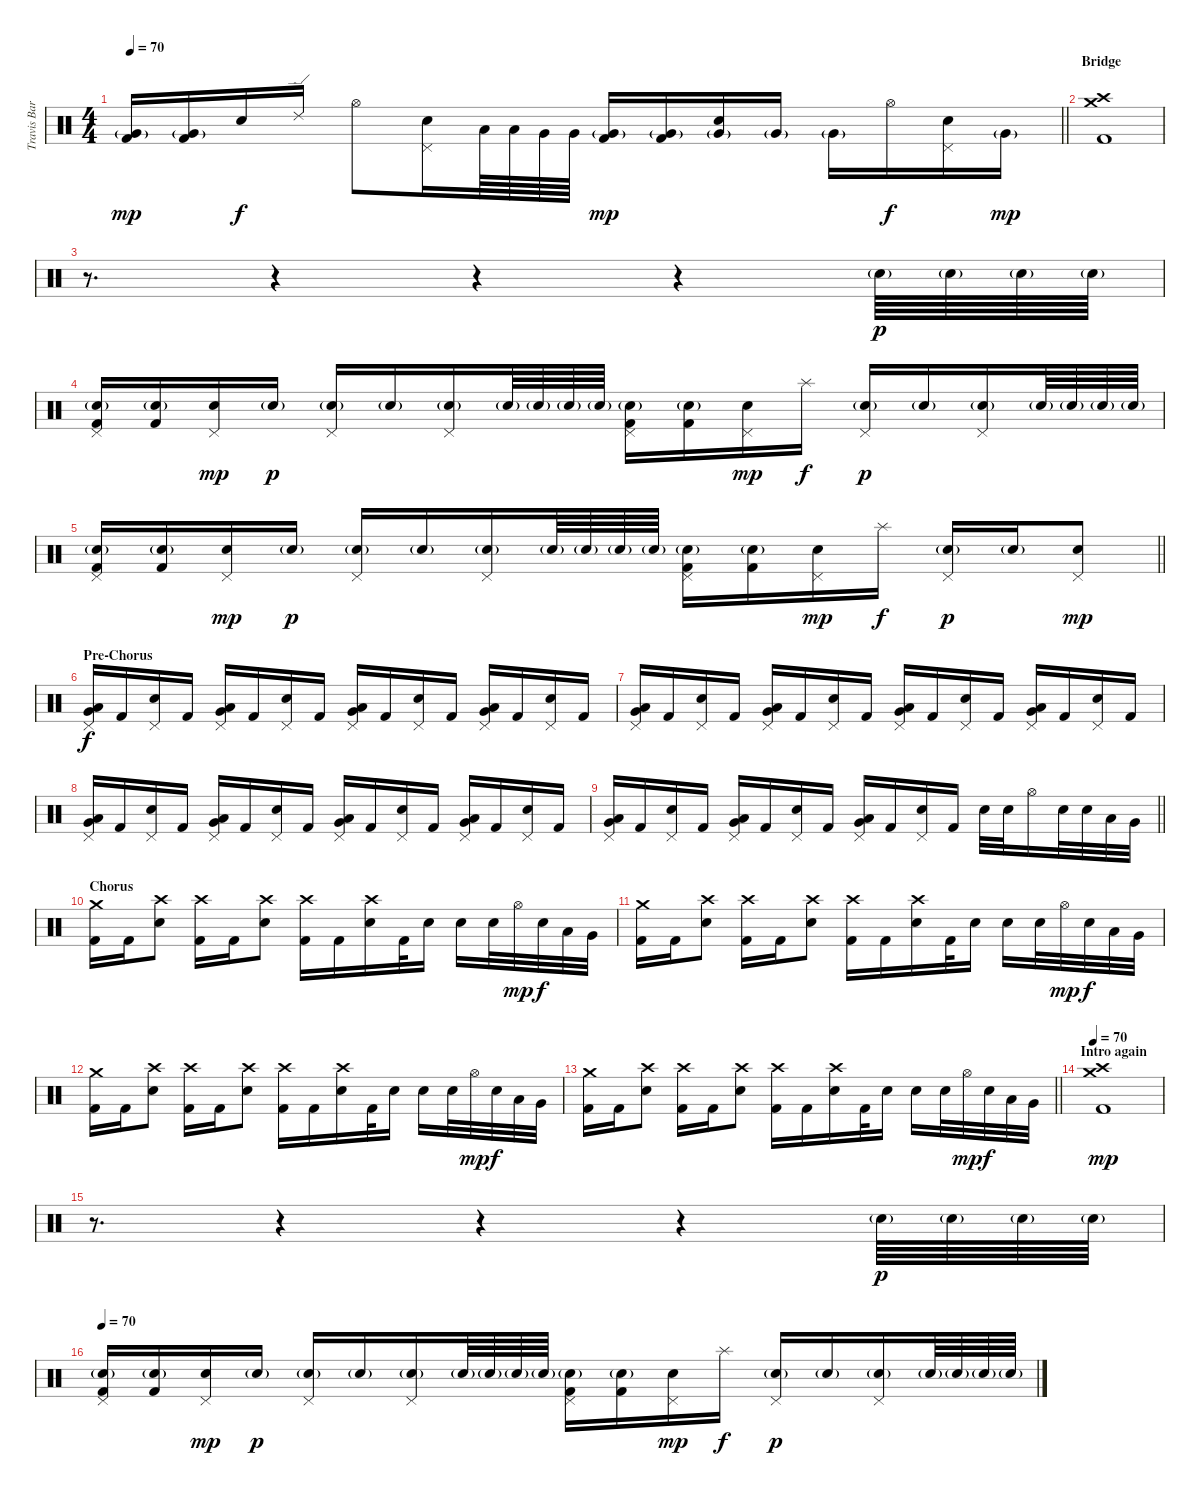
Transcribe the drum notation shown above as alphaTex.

\track ("Travis Barker" "Travis Bar") {instrument percussion}
\staff {score}
\articulation defaults
\ts (4 4)
\tempo 70
\clef neutral
\barLineRight lightlight
\ks c
("Very Low Tom (hit)"{g} "Kick (hit) 2").16{dy mp} ("Very Low Tom (hit)"{g} "Kick (hit) 2").16 "Electric Snare (hit)".16{dy f} "Ride (edge) 2".16 "Hi-Hat (open)".8 ("Pedal Hi-Hat (hit)" "Electric Snare (hit)").16 "Low Tom (hit)".64 "Low Tom (hit)".64 "Very Low Tom (hit)".64 "Very Low Tom (hit)".64 ("Very Low Tom (hit)"{g} "Kick (hit) 2").16{dy mp} ("Very Low Tom (hit)"{g} "Kick (hit) 2").16 ("Electric Snare (hit)" "Very Low Tom (hit)"{g}).16 "Very Low Tom (hit)"{g}.16 "Very Low Tom (hit)"{g}.16 "Hi-Hat (open)".16{dy f} ("Pedal Hi-Hat (hit)" "Electric Snare (hit)").16 "Very Low Tom (hit)"{g}.16{dy mp} |
\section ("" "Bridge")
("Crash medium (hit)" "Crash high (hit)" "Kick (hit) 2").1 |
r.8{d} r.4 r.4 r.4 "Electric Snare (hit)"{g}.64{dy p} "Electric Snare (hit)"{g}.64 "Electric Snare (hit)"{g}.64 "Electric Snare (hit)"{g}.64 |
("Pedal Hi-Hat (hit)" "Electric Snare (hit)"{g} "Kick (hit) 2").16 ("Electric Snare (hit)"{g} "Kick (hit) 2").16 ("Pedal Hi-Hat (hit)" "Electric Snare (hit)").16{dy mp} "Electric Snare (hit)"{g}.16{dy p} ("Pedal Hi-Hat (hit)" "Electric Snare (hit)"{g}).16 "Electric Snare (hit)"{g}.16 ("Pedal Hi-Hat (hit)" "Electric Snare (hit)"{g}).16 "Electric Snare (hit)"{g}.64 "Electric Snare (hit)"{g}.64 "Electric Snare (hit)"{g}.64 "Electric Snare (hit)"{g}.64 ("Pedal Hi-Hat (hit)" "Electric Snare (hit)"{g} "Kick (hit) 2").16 ("Electric Snare (hit)"{g} "Kick (hit) 2").16 ("Pedal Hi-Hat (hit)" "Electric Snare (hit)").16{dy mp} "Splash (hit)".16{dy f} ("Pedal Hi-Hat (hit)" "Electric Snare (hit)"{g}).16{dy p} "Electric Snare (hit)"{g}.16 ("Pedal Hi-Hat (hit)" "Electric Snare (hit)"{g}).16 "Electric Snare (hit)"{g}.64 "Electric Snare (hit)"{g}.64 "Electric Snare (hit)"{g}.64 "Electric Snare (hit)"{g}.64 |
\barLineRight lightlight
("Pedal Hi-Hat (hit)" "Electric Snare (hit)"{g} "Kick (hit) 2").16 ("Electric Snare (hit)"{g} "Kick (hit) 2").16 ("Pedal Hi-Hat (hit)" "Electric Snare (hit)").16{dy mp} "Electric Snare (hit)"{g}.16{dy p} ("Pedal Hi-Hat (hit)" "Electric Snare (hit)"{g}).16 "Electric Snare (hit)"{g}.16 ("Pedal Hi-Hat (hit)" "Electric Snare (hit)"{g}).16 "Electric Snare (hit)"{g}.64 "Electric Snare (hit)"{g}.64 "Electric Snare (hit)"{g}.64 "Electric Snare (hit)"{g}.64 ("Pedal Hi-Hat (hit)" "Electric Snare (hit)"{g} "Kick (hit) 2").16 ("Electric Snare (hit)"{g} "Kick (hit) 2").16 ("Pedal Hi-Hat (hit)" "Electric Snare (hit)").16{dy mp} "Splash (hit)".16{dy f} ("Pedal Hi-Hat (hit)" "Electric Snare (hit)"{g}).16{dy p} "Electric Snare (hit)"{g}.16 ("Pedal Hi-Hat (hit)" "Electric Snare (hit)").8{dy mp} |
\section ("" "Pre-Chorus")
("Pedal Hi-Hat (hit)" "Low Tom (hit)" "Very Low Tom (hit)").16{dy f} "Kick (hit) 2".16 ("Pedal Hi-Hat (hit)" "Electric Snare (hit)").16 "Kick (hit) 2".16 ("Pedal Hi-Hat (hit)" "Low Tom (hit)" "Very Low Tom (hit)").16 "Kick (hit) 2".16 ("Pedal Hi-Hat (hit)" "Electric Snare (hit)").16 "Kick (hit) 2".16 ("Pedal Hi-Hat (hit)" "Low Tom (hit)" "Very Low Tom (hit)").16 "Kick (hit) 2".16 ("Pedal Hi-Hat (hit)" "Electric Snare (hit)").16 "Kick (hit) 2".16 ("Pedal Hi-Hat (hit)" "Low Tom (hit)" "Very Low Tom (hit)").16 "Kick (hit) 2".16 ("Pedal Hi-Hat (hit)" "Electric Snare (hit)").16 "Kick (hit) 2".16 |
("Pedal Hi-Hat (hit)" "Low Tom (hit)" "Very Low Tom (hit)").16 "Kick (hit) 2".16 ("Pedal Hi-Hat (hit)" "Electric Snare (hit)").16 "Kick (hit) 2".16 ("Pedal Hi-Hat (hit)" "Low Tom (hit)" "Very Low Tom (hit)").16 "Kick (hit) 2".16 ("Pedal Hi-Hat (hit)" "Electric Snare (hit)").16 "Kick (hit) 2".16 ("Pedal Hi-Hat (hit)" "Low Tom (hit)" "Very Low Tom (hit)").16 "Kick (hit) 2".16 ("Pedal Hi-Hat (hit)" "Electric Snare (hit)").16 "Kick (hit) 2".16 ("Pedal Hi-Hat (hit)" "Low Tom (hit)" "Very Low Tom (hit)").16 "Kick (hit) 2".16 ("Pedal Hi-Hat (hit)" "Electric Snare (hit)").16 "Kick (hit) 2".16 |
("Pedal Hi-Hat (hit)" "Low Tom (hit)" "Very Low Tom (hit)").16 "Kick (hit) 2".16 ("Pedal Hi-Hat (hit)" "Electric Snare (hit)").16 "Kick (hit) 2".16 ("Pedal Hi-Hat (hit)" "Low Tom (hit)" "Very Low Tom (hit)").16 "Kick (hit) 2".16 ("Pedal Hi-Hat (hit)" "Electric Snare (hit)").16 "Kick (hit) 2".16 ("Pedal Hi-Hat (hit)" "Low Tom (hit)" "Very Low Tom (hit)").16 "Kick (hit) 2".16 ("Pedal Hi-Hat (hit)" "Electric Snare (hit)").16 "Kick (hit) 2".16 ("Pedal Hi-Hat (hit)" "Low Tom (hit)" "Very Low Tom (hit)").16 "Kick (hit) 2".16 ("Pedal Hi-Hat (hit)" "Electric Snare (hit)").16 "Kick (hit) 2".16 |
\barLineRight lightlight
("Pedal Hi-Hat (hit)" "Low Tom (hit)" "Very Low Tom (hit)").16 "Kick (hit) 2".16 ("Pedal Hi-Hat (hit)" "Electric Snare (hit)").16 "Kick (hit) 2".16 ("Pedal Hi-Hat (hit)" "Low Tom (hit)" "Very Low Tom (hit)").16 "Kick (hit) 2".16 ("Pedal Hi-Hat (hit)" "Electric Snare (hit)").16 "Kick (hit) 2".16 ("Pedal Hi-Hat (hit)" "Low Tom (hit)" "Very Low Tom (hit)").16 "Kick (hit) 2".16 ("Pedal Hi-Hat (hit)" "Electric Snare (hit)").16 "Kick (hit) 2".16 "Electric Snare (hit)".32 "Electric Snare (hit)".32 "Hi-Hat (open)".16 "Electric Snare (hit)".32 "Electric Snare (hit)".32 "Low Tom (hit)".32 "Very Low Tom (hit)".32 |
\section ("" "Chorus")
("Crash medium (hit)" "Kick (hit) 2").16 "Kick (hit) 2".16 ("Crash high (hit)" "Electric Snare (hit)").8 ("Crash high (hit)" "Kick (hit) 2").16 "Kick (hit) 2".16 ("Crash high (hit)" "Electric Snare (hit)").8 ("Crash high (hit)" "Kick (hit) 2").16 "Kick (hit) 2".16 ("Crash high (hit)" "Electric Snare (hit)").16 "Kick (hit) 2".32 "Electric Snare (hit)".16 "Electric Snare (hit)".16 "Electric Snare (hit)".32 "Hi-Hat (open)".32{dy mp} "Electric Snare (hit)".32{dy f} "Low Tom (hit)".32 "Very Low Tom (hit)".32 |
("Crash medium (hit)" "Kick (hit) 2").16 "Kick (hit) 2".16 ("Crash high (hit)" "Electric Snare (hit)").8 ("Crash high (hit)" "Kick (hit) 2").16 "Kick (hit) 2".16 ("Crash high (hit)" "Electric Snare (hit)").8 ("Crash high (hit)" "Kick (hit) 2").16 "Kick (hit) 2".16 ("Crash high (hit)" "Electric Snare (hit)").16 "Kick (hit) 2".32 "Electric Snare (hit)".16 "Electric Snare (hit)".16 "Electric Snare (hit)".32 "Hi-Hat (open)".32{dy mp} "Electric Snare (hit)".32{dy f} "Low Tom (hit)".32 "Very Low Tom (hit)".32 |
("Crash medium (hit)" "Kick (hit) 2").16 "Kick (hit) 2".16 ("Crash high (hit)" "Electric Snare (hit)").8 ("Crash high (hit)" "Kick (hit) 2").16 "Kick (hit) 2".16 ("Crash high (hit)" "Electric Snare (hit)").8 ("Crash high (hit)" "Kick (hit) 2").16 "Kick (hit) 2".16 ("Crash high (hit)" "Electric Snare (hit)").16 "Kick (hit) 2".32 "Electric Snare (hit)".16 "Electric Snare (hit)".16 "Electric Snare (hit)".32 "Hi-Hat (open)".32{dy mp} "Electric Snare (hit)".32{dy f} "Low Tom (hit)".32 "Very Low Tom (hit)".32 |
\barLineRight lightlight
("Crash medium (hit)" "Kick (hit) 2").16 "Kick (hit) 2".16 ("Crash high (hit)" "Electric Snare (hit)").8 ("Crash high (hit)" "Kick (hit) 2").16 "Kick (hit) 2".16 ("Crash high (hit)" "Electric Snare (hit)").8 ("Crash high (hit)" "Kick (hit) 2").16 "Kick (hit) 2".16 ("Crash high (hit)" "Electric Snare (hit)").16 "Kick (hit) 2".32 "Electric Snare (hit)".16 "Electric Snare (hit)".16 "Electric Snare (hit)".32 "Hi-Hat (open)".32{dy mp} "Electric Snare (hit)".32{dy f} "Low Tom (hit)".32 "Very Low Tom (hit)".32 |
\section ("" "Intro again")
\tempo 70
("Crash medium (hit)" "Crash high (hit)" "Kick (hit) 2").1{dy mp} |
r.8{d} r.4 r.4 r.4 "Electric Snare (hit)"{g}.64{dy p} "Electric Snare (hit)"{g}.64 "Electric Snare (hit)"{g}.64 "Electric Snare (hit)"{g}.64 |
\tempo 70
("Pedal Hi-Hat (hit)" "Electric Snare (hit)"{g} "Kick (hit) 2").16 ("Electric Snare (hit)"{g} "Kick (hit) 2").16 ("Pedal Hi-Hat (hit)" "Electric Snare (hit)").16{dy mp} "Electric Snare (hit)"{g}.16{dy p} ("Pedal Hi-Hat (hit)" "Electric Snare (hit)"{g}).16 "Electric Snare (hit)"{g}.16 ("Pedal Hi-Hat (hit)" "Electric Snare (hit)"{g}).16 "Electric Snare (hit)"{g}.64 "Electric Snare (hit)"{g}.64 "Electric Snare (hit)"{g}.64 "Electric Snare (hit)"{g}.64 ("Pedal Hi-Hat (hit)" "Electric Snare (hit)"{g} "Kick (hit) 2").16 ("Electric Snare (hit)"{g} "Kick (hit) 2").16 ("Pedal Hi-Hat (hit)" "Electric Snare (hit)").16{dy mp} "Splash (hit)".16{dy f} ("Pedal Hi-Hat (hit)" "Electric Snare (hit)"{g}).16{dy p} "Electric Snare (hit)"{g}.16 ("Pedal Hi-Hat (hit)" "Electric Snare (hit)"{g}).16 "Electric Snare (hit)"{g}.64 "Electric Snare (hit)"{g}.64 "Electric Snare (hit)"{g}.64 "Electric Snare (hit)"{g}.64
